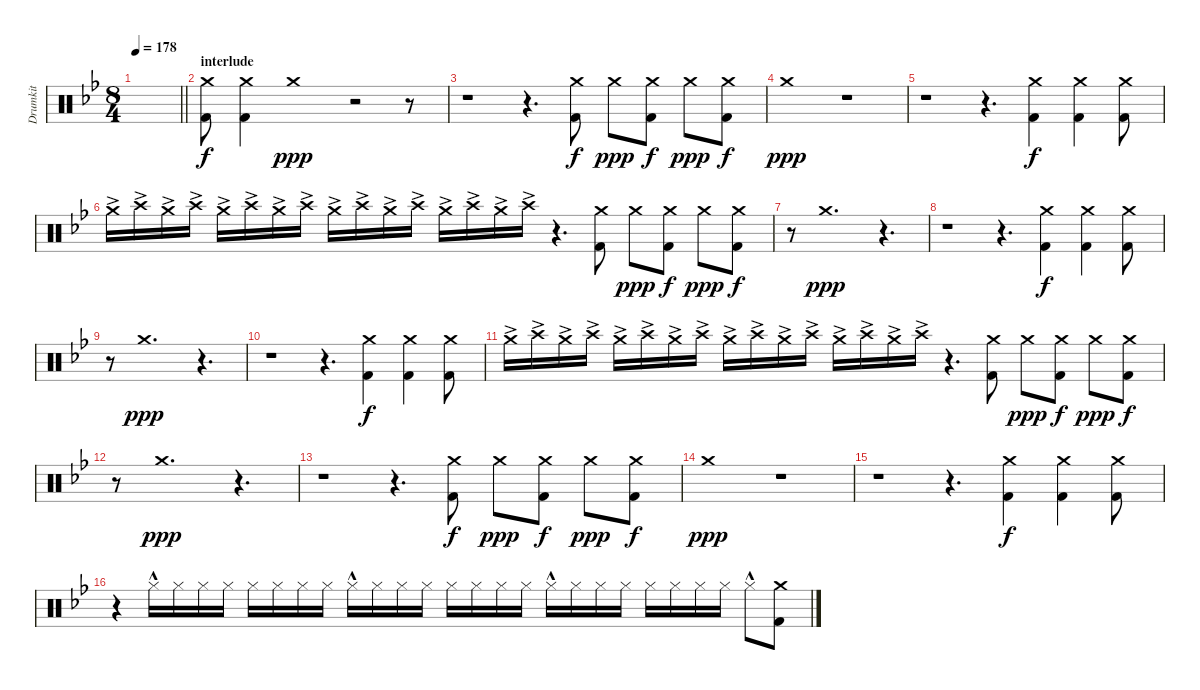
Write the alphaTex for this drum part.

\track ("Drumkit" "Drumkit") {instrument percussion}
\staff {score}
\articulation defaults
\ts (8 4)
\tempo 178
\clef neutral
\barLineRight lightlight
\ks bb
|
\section ("" "interlude")
("Crash medium (hit)" "Kick (hit) 2").8 ("Crash medium (hit)" "Kick (hit) 2").4 "Crash medium (hit)".1{dy ppp} r.2 r.8 |
r.1 r.4{d} ("Crash medium (hit)" "Kick (hit) 2").8{dy f} "Crash medium (hit)".8{dy ppp} ("Crash medium (hit)" "Kick (hit) 2").8{dy f} "Crash medium (hit)".8{dy ppp} ("Crash medium (hit)" "Kick (hit) 2").8{dy f} |
"Crash medium (hit)".1{dy ppp} r.1 |
r.1 r.4{d} ("Crash medium (hit)" "Kick (hit) 2").4{dy f} ("Crash medium (hit)" "Kick (hit) 2").4 ("Crash medium (hit)" "Kick (hit) 2").8 |
"Crash medium (hit)"{ac}.16 "Crash high (hit)"{ac}.16 "Crash medium (hit)"{ac}.16 "Crash high (hit)"{ac}.16 "Crash medium (hit)"{ac}.16 "Crash high (hit)"{ac}.16 "Crash medium (hit)"{ac}.16 "Crash high (hit)"{ac}.16 "Crash medium (hit)"{ac}.16 "Crash high (hit)"{ac}.16 "Crash medium (hit)"{ac}.16 "Crash high (hit)"{ac}.16 "Crash medium (hit)"{ac}.16 "Crash high (hit)"{ac}.16 "Crash medium (hit)"{ac}.16 "Crash high (hit)"{ac}.16 r.4{d} ("Crash medium (hit)" "Kick (hit) 2").8 "Crash medium (hit)".8{dy ppp} ("Crash medium (hit)" "Kick (hit) 2").8{dy f} "Crash medium (hit)".8{dy ppp} ("Crash medium (hit)" "Kick (hit) 2").8{dy f} |
r.8 "Crash medium (hit)".1{d dy ppp} r.4{d} |
r.1 r.4{d} ("Crash medium (hit)" "Kick (hit) 2").4{dy f} ("Crash medium (hit)" "Kick (hit) 2").4 ("Crash medium (hit)" "Kick (hit) 2").8 |
r.8 "Crash medium (hit)".1{d dy ppp} r.4{d} |
r.1 r.4{d} ("Crash medium (hit)" "Kick (hit) 2").4{dy f} ("Crash medium (hit)" "Kick (hit) 2").4 ("Crash medium (hit)" "Kick (hit) 2").8 |
"Crash medium (hit)"{ac}.16 "Crash high (hit)"{ac}.16 "Crash medium (hit)"{ac}.16 "Crash high (hit)"{ac}.16 "Crash medium (hit)"{ac}.16 "Crash high (hit)"{ac}.16 "Crash medium (hit)"{ac}.16 "Crash high (hit)"{ac}.16 "Crash medium (hit)"{ac}.16 "Crash high (hit)"{ac}.16 "Crash medium (hit)"{ac}.16 "Crash high (hit)"{ac}.16 "Crash medium (hit)"{ac}.16 "Crash high (hit)"{ac}.16 "Crash medium (hit)"{ac}.16 "Crash high (hit)"{ac}.16 r.4{d} ("Crash medium (hit)" "Kick (hit) 2").8 "Crash medium (hit)".8{dy ppp} ("Crash medium (hit)" "Kick (hit) 2").8{dy f} "Crash medium (hit)".8{dy ppp} ("Crash medium (hit)" "Kick (hit) 2").8{dy f} |
r.8 "Crash medium (hit)".1{d dy ppp} r.4{d} |
r.1 r.4{d} ("Crash medium (hit)" "Kick (hit) 2").8{dy f} "Crash medium (hit)".8{dy ppp} ("Crash medium (hit)" "Kick (hit) 2").8{dy f} "Crash medium (hit)".8{dy ppp} ("Crash medium (hit)" "Kick (hit) 2").8{dy f} |
"Crash medium (hit)".1{dy ppp} r.1 |
r.1 r.4{d} ("Crash medium (hit)" "Kick (hit) 2").4{dy f} ("Crash medium (hit)" "Kick (hit) 2").4 ("Crash medium (hit)" "Kick (hit) 2").8 |
r.4 "Hi-Hat (closed)"{hac}.16 "Hi-Hat (closed)".16 "Hi-Hat (closed)".16 "Hi-Hat (closed)".16 "Hi-Hat (closed)".16 "Hi-Hat (closed)".16 "Hi-Hat (closed)".16 "Hi-Hat (closed)".16 "Hi-Hat (closed)"{hac}.16 "Hi-Hat (closed)".16 "Hi-Hat (closed)".16 "Hi-Hat (closed)".16 "Hi-Hat (closed)".16 "Hi-Hat (closed)".16 "Hi-Hat (closed)".16 "Hi-Hat (closed)".16 "Hi-Hat (closed)"{hac}.16 "Hi-Hat (closed)".16 "Hi-Hat (closed)".16 "Hi-Hat (closed)".16 "Hi-Hat (closed)".16 "Hi-Hat (closed)".16 "Hi-Hat (closed)".16 "Hi-Hat (closed)".16 "Hi-Hat (closed)"{hac}.8 ("Crash medium (hit)" "Kick (hit) 2").8
